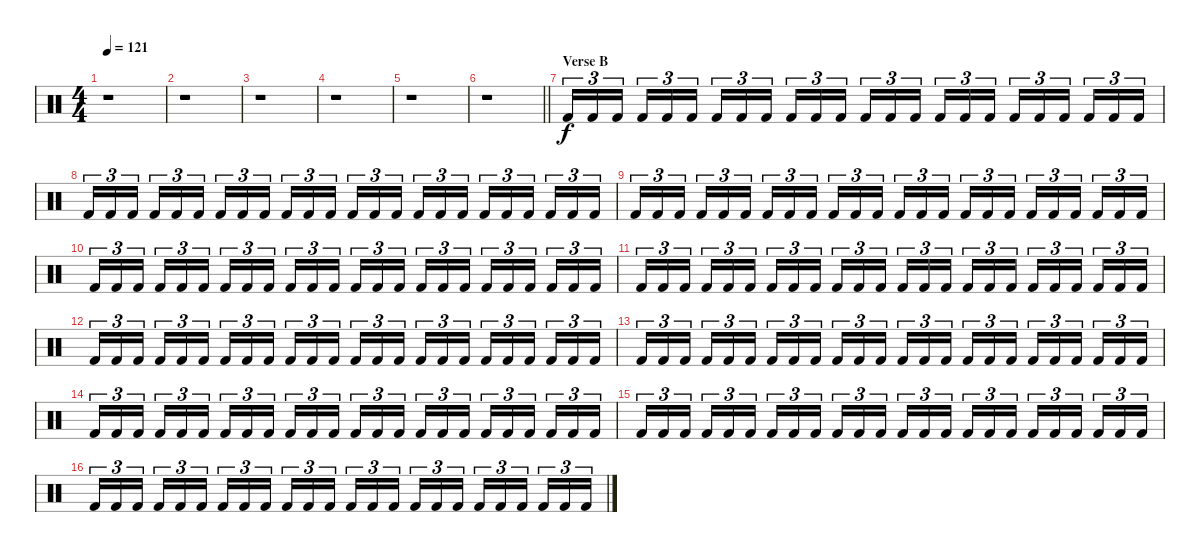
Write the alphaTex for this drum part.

\track "" {instrument percussion}
\staff {score}
\articulation defaults
\ts (4 4)
\tempo 121
\clef neutral
\ks c
r.1{dy f} |
r.1 |
r.1 |
r.1 |
r.1 |
\barLineRight lightlight
r.1 |
\section ("" "Verse B")
"Kick (hit) 2".16{tu (3 2)} "Kick (hit) 2".16{tu (3 2)} "Kick (hit) 2".16{tu (3 2) beam splitsecondary} "Kick (hit) 2".16{tu (3 2)} "Kick (hit) 2".16{tu (3 2)} "Kick (hit) 2".16{tu (3 2)} "Kick (hit) 2".16{tu (3 2)} "Kick (hit) 2".16{tu (3 2)} "Kick (hit) 2".16{tu (3 2) beam splitsecondary} "Kick (hit) 2".16{tu (3 2)} "Kick (hit) 2".16{tu (3 2)} "Kick (hit) 2".16{tu (3 2)} "Kick (hit) 2".16{tu (3 2)} "Kick (hit) 2".16{tu (3 2)} "Kick (hit) 2".16{tu (3 2) beam splitsecondary} "Kick (hit) 2".16{tu (3 2)} "Kick (hit) 2".16{tu (3 2)} "Kick (hit) 2".16{tu (3 2)} "Kick (hit) 2".16{tu (3 2)} "Kick (hit) 2".16{tu (3 2)} "Kick (hit) 2".16{tu (3 2) beam splitsecondary} "Kick (hit) 2".16{tu (3 2)} "Kick (hit) 2".16{tu (3 2)} "Kick (hit) 2".16{tu (3 2)} |
"Kick (hit) 2".16{tu (3 2)} "Kick (hit) 2".16{tu (3 2)} "Kick (hit) 2".16{tu (3 2) beam splitsecondary} "Kick (hit) 2".16{tu (3 2)} "Kick (hit) 2".16{tu (3 2)} "Kick (hit) 2".16{tu (3 2)} "Kick (hit) 2".16{tu (3 2)} "Kick (hit) 2".16{tu (3 2)} "Kick (hit) 2".16{tu (3 2) beam splitsecondary} "Kick (hit) 2".16{tu (3 2)} "Kick (hit) 2".16{tu (3 2)} "Kick (hit) 2".16{tu (3 2)} "Kick (hit) 2".16{tu (3 2)} "Kick (hit) 2".16{tu (3 2)} "Kick (hit) 2".16{tu (3 2) beam splitsecondary} "Kick (hit) 2".16{tu (3 2)} "Kick (hit) 2".16{tu (3 2)} "Kick (hit) 2".16{tu (3 2)} "Kick (hit) 2".16{tu (3 2)} "Kick (hit) 2".16{tu (3 2)} "Kick (hit) 2".16{tu (3 2) beam splitsecondary} "Kick (hit) 2".16{tu (3 2)} "Kick (hit) 2".16{tu (3 2)} "Kick (hit) 2".16{tu (3 2)} |
"Kick (hit) 2".16{tu (3 2)} "Kick (hit) 2".16{tu (3 2)} "Kick (hit) 2".16{tu (3 2) beam splitsecondary} "Kick (hit) 2".16{tu (3 2)} "Kick (hit) 2".16{tu (3 2)} "Kick (hit) 2".16{tu (3 2)} "Kick (hit) 2".16{tu (3 2)} "Kick (hit) 2".16{tu (3 2)} "Kick (hit) 2".16{tu (3 2) beam splitsecondary} "Kick (hit) 2".16{tu (3 2)} "Kick (hit) 2".16{tu (3 2)} "Kick (hit) 2".16{tu (3 2)} "Kick (hit) 2".16{tu (3 2)} "Kick (hit) 2".16{tu (3 2)} "Kick (hit) 2".16{tu (3 2) beam splitsecondary} "Kick (hit) 2".16{tu (3 2)} "Kick (hit) 2".16{tu (3 2)} "Kick (hit) 2".16{tu (3 2)} "Kick (hit) 2".16{tu (3 2)} "Kick (hit) 2".16{tu (3 2)} "Kick (hit) 2".16{tu (3 2) beam splitsecondary} "Kick (hit) 2".16{tu (3 2)} "Kick (hit) 2".16{tu (3 2)} "Kick (hit) 2".16{tu (3 2)} |
"Kick (hit) 2".16{tu (3 2)} "Kick (hit) 2".16{tu (3 2)} "Kick (hit) 2".16{tu (3 2) beam splitsecondary} "Kick (hit) 2".16{tu (3 2)} "Kick (hit) 2".16{tu (3 2)} "Kick (hit) 2".16{tu (3 2)} "Kick (hit) 2".16{tu (3 2)} "Kick (hit) 2".16{tu (3 2)} "Kick (hit) 2".16{tu (3 2) beam splitsecondary} "Kick (hit) 2".16{tu (3 2)} "Kick (hit) 2".16{tu (3 2)} "Kick (hit) 2".16{tu (3 2)} "Kick (hit) 2".16{tu (3 2)} "Kick (hit) 2".16{tu (3 2)} "Kick (hit) 2".16{tu (3 2) beam splitsecondary} "Kick (hit) 2".16{tu (3 2)} "Kick (hit) 2".16{tu (3 2)} "Kick (hit) 2".16{tu (3 2)} "Kick (hit) 2".16{tu (3 2)} "Kick (hit) 2".16{tu (3 2)} "Kick (hit) 2".16{tu (3 2) beam splitsecondary} "Kick (hit) 2".16{tu (3 2)} "Kick (hit) 2".16{tu (3 2)} "Kick (hit) 2".16{tu (3 2)} |
"Kick (hit) 2".16{tu (3 2)} "Kick (hit) 2".16{tu (3 2)} "Kick (hit) 2".16{tu (3 2) beam splitsecondary} "Kick (hit) 2".16{tu (3 2)} "Kick (hit) 2".16{tu (3 2)} "Kick (hit) 2".16{tu (3 2)} "Kick (hit) 2".16{tu (3 2)} "Kick (hit) 2".16{tu (3 2)} "Kick (hit) 2".16{tu (3 2) beam splitsecondary} "Kick (hit) 2".16{tu (3 2)} "Kick (hit) 2".16{tu (3 2)} "Kick (hit) 2".16{tu (3 2)} "Kick (hit) 2".16{tu (3 2)} "Kick (hit) 2".16{tu (3 2)} "Kick (hit) 2".16{tu (3 2) beam splitsecondary} "Kick (hit) 2".16{tu (3 2)} "Kick (hit) 2".16{tu (3 2)} "Kick (hit) 2".16{tu (3 2)} "Kick (hit) 2".16{tu (3 2)} "Kick (hit) 2".16{tu (3 2)} "Kick (hit) 2".16{tu (3 2) beam splitsecondary} "Kick (hit) 2".16{tu (3 2)} "Kick (hit) 2".16{tu (3 2)} "Kick (hit) 2".16{tu (3 2)} |
"Kick (hit) 2".16{tu (3 2)} "Kick (hit) 2".16{tu (3 2)} "Kick (hit) 2".16{tu (3 2) beam splitsecondary} "Kick (hit) 2".16{tu (3 2)} "Kick (hit) 2".16{tu (3 2)} "Kick (hit) 2".16{tu (3 2)} "Kick (hit) 2".16{tu (3 2)} "Kick (hit) 2".16{tu (3 2)} "Kick (hit) 2".16{tu (3 2) beam splitsecondary} "Kick (hit) 2".16{tu (3 2)} "Kick (hit) 2".16{tu (3 2)} "Kick (hit) 2".16{tu (3 2)} "Kick (hit) 2".16{tu (3 2)} "Kick (hit) 2".16{tu (3 2)} "Kick (hit) 2".16{tu (3 2) beam splitsecondary} "Kick (hit) 2".16{tu (3 2)} "Kick (hit) 2".16{tu (3 2)} "Kick (hit) 2".16{tu (3 2)} "Kick (hit) 2".16{tu (3 2)} "Kick (hit) 2".16{tu (3 2)} "Kick (hit) 2".16{tu (3 2) beam splitsecondary} "Kick (hit) 2".16{tu (3 2)} "Kick (hit) 2".16{tu (3 2)} "Kick (hit) 2".16{tu (3 2)} |
"Kick (hit) 2".16{tu (3 2)} "Kick (hit) 2".16{tu (3 2)} "Kick (hit) 2".16{tu (3 2) beam splitsecondary} "Kick (hit) 2".16{tu (3 2)} "Kick (hit) 2".16{tu (3 2)} "Kick (hit) 2".16{tu (3 2)} "Kick (hit) 2".16{tu (3 2)} "Kick (hit) 2".16{tu (3 2)} "Kick (hit) 2".16{tu (3 2) beam splitsecondary} "Kick (hit) 2".16{tu (3 2)} "Kick (hit) 2".16{tu (3 2)} "Kick (hit) 2".16{tu (3 2)} "Kick (hit) 2".16{tu (3 2)} "Kick (hit) 2".16{tu (3 2)} "Kick (hit) 2".16{tu (3 2) beam splitsecondary} "Kick (hit) 2".16{tu (3 2)} "Kick (hit) 2".16{tu (3 2)} "Kick (hit) 2".16{tu (3 2)} "Kick (hit) 2".16{tu (3 2)} "Kick (hit) 2".16{tu (3 2)} "Kick (hit) 2".16{tu (3 2) beam splitsecondary} "Kick (hit) 2".16{tu (3 2)} "Kick (hit) 2".16{tu (3 2)} "Kick (hit) 2".16{tu (3 2)} |
"Kick (hit) 2".16{tu (3 2)} "Kick (hit) 2".16{tu (3 2)} "Kick (hit) 2".16{tu (3 2) beam splitsecondary} "Kick (hit) 2".16{tu (3 2)} "Kick (hit) 2".16{tu (3 2)} "Kick (hit) 2".16{tu (3 2)} "Kick (hit) 2".16{tu (3 2)} "Kick (hit) 2".16{tu (3 2)} "Kick (hit) 2".16{tu (3 2) beam splitsecondary} "Kick (hit) 2".16{tu (3 2)} "Kick (hit) 2".16{tu (3 2)} "Kick (hit) 2".16{tu (3 2)} "Kick (hit) 2".16{tu (3 2)} "Kick (hit) 2".16{tu (3 2)} "Kick (hit) 2".16{tu (3 2) beam splitsecondary} "Kick (hit) 2".16{tu (3 2)} "Kick (hit) 2".16{tu (3 2)} "Kick (hit) 2".16{tu (3 2)} "Kick (hit) 2".16{tu (3 2)} "Kick (hit) 2".16{tu (3 2)} "Kick (hit) 2".16{tu (3 2) beam splitsecondary} "Kick (hit) 2".16{tu (3 2)} "Kick (hit) 2".16{tu (3 2)} "Kick (hit) 2".16{tu (3 2)} |
"Kick (hit) 2".16{tu (3 2)} "Kick (hit) 2".16{tu (3 2)} "Kick (hit) 2".16{tu (3 2) beam splitsecondary} "Kick (hit) 2".16{tu (3 2)} "Kick (hit) 2".16{tu (3 2)} "Kick (hit) 2".16{tu (3 2)} "Kick (hit) 2".16{tu (3 2)} "Kick (hit) 2".16{tu (3 2)} "Kick (hit) 2".16{tu (3 2) beam splitsecondary} "Kick (hit) 2".16{tu (3 2)} "Kick (hit) 2".16{tu (3 2)} "Kick (hit) 2".16{tu (3 2)} "Kick (hit) 2".16{tu (3 2)} "Kick (hit) 2".16{tu (3 2)} "Kick (hit) 2".16{tu (3 2) beam splitsecondary} "Kick (hit) 2".16{tu (3 2)} "Kick (hit) 2".16{tu (3 2)} "Kick (hit) 2".16{tu (3 2)} "Kick (hit) 2".16{tu (3 2)} "Kick (hit) 2".16{tu (3 2)} "Kick (hit) 2".16{tu (3 2) beam splitsecondary} "Kick (hit) 2".16{tu (3 2)} "Kick (hit) 2".16{tu (3 2)} "Kick (hit) 2".16{tu (3 2)} |
"Kick (hit) 2".16{tu (3 2)} "Kick (hit) 2".16{tu (3 2)} "Kick (hit) 2".16{tu (3 2) beam splitsecondary} "Kick (hit) 2".16{tu (3 2)} "Kick (hit) 2".16{tu (3 2)} "Kick (hit) 2".16{tu (3 2)} "Kick (hit) 2".16{tu (3 2)} "Kick (hit) 2".16{tu (3 2)} "Kick (hit) 2".16{tu (3 2) beam splitsecondary} "Kick (hit) 2".16{tu (3 2)} "Kick (hit) 2".16{tu (3 2)} "Kick (hit) 2".16{tu (3 2)} "Kick (hit) 2".16{tu (3 2)} "Kick (hit) 2".16{tu (3 2)} "Kick (hit) 2".16{tu (3 2) beam splitsecondary} "Kick (hit) 2".16{tu (3 2)} "Kick (hit) 2".16{tu (3 2)} "Kick (hit) 2".16{tu (3 2)} "Kick (hit) 2".16{tu (3 2)} "Kick (hit) 2".16{tu (3 2)} "Kick (hit) 2".16{tu (3 2) beam splitsecondary} "Kick (hit) 2".16{tu (3 2)} "Kick (hit) 2".16{tu (3 2)} "Kick (hit) 2".16{tu (3 2)}
